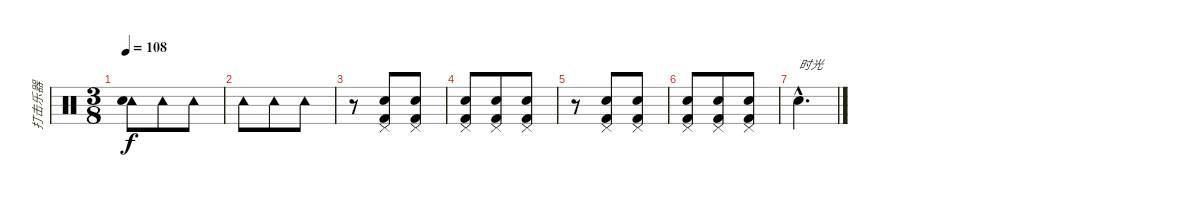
\track ("打击乐器" "打击乐器") {instrument percussion}
\staff {score}
\articulation defaults
\ts (3 8)
\tempo 108
\clef neutral
\ks c
("Tambourine (hit)" "Snare (hit) 2").8{dy f} "Tambourine (hit)".8 "Tambourine (hit)".8 |
"Tambourine (hit)".8 "Tambourine (hit)".8 "Tambourine (hit)".8 |
r.8 ("Pedal Hi-Hat (hit)" "Kick (hit) 2" "Snare (hit) 2").8 ("Pedal Hi-Hat (hit)" "Kick (hit) 2" "Snare (hit) 2").8 |
("Pedal Hi-Hat (hit)" "Kick (hit) 2" "Snare (hit) 2").8 ("Pedal Hi-Hat (hit)" "Kick (hit) 2" "Snare (hit) 2").8 ("Pedal Hi-Hat (hit)" "Kick (hit) 2" "Snare (hit) 2").8 |
r.8 ("Pedal Hi-Hat (hit)" "Kick (hit) 2" "Snare (hit) 2").8 ("Pedal Hi-Hat (hit)" "Kick (hit) 2" "Snare (hit) 2").8 |
("Pedal Hi-Hat (hit)" "Kick (hit) 2" "Snare (hit) 2").8 ("Pedal Hi-Hat (hit)" "Kick (hit) 2" "Snare (hit) 2").8 ("Pedal Hi-Hat (hit)" "Kick (hit) 2" "Snare (hit) 2").8 |
"Snare (hit)"{hac}.4{d txt "时光"}
